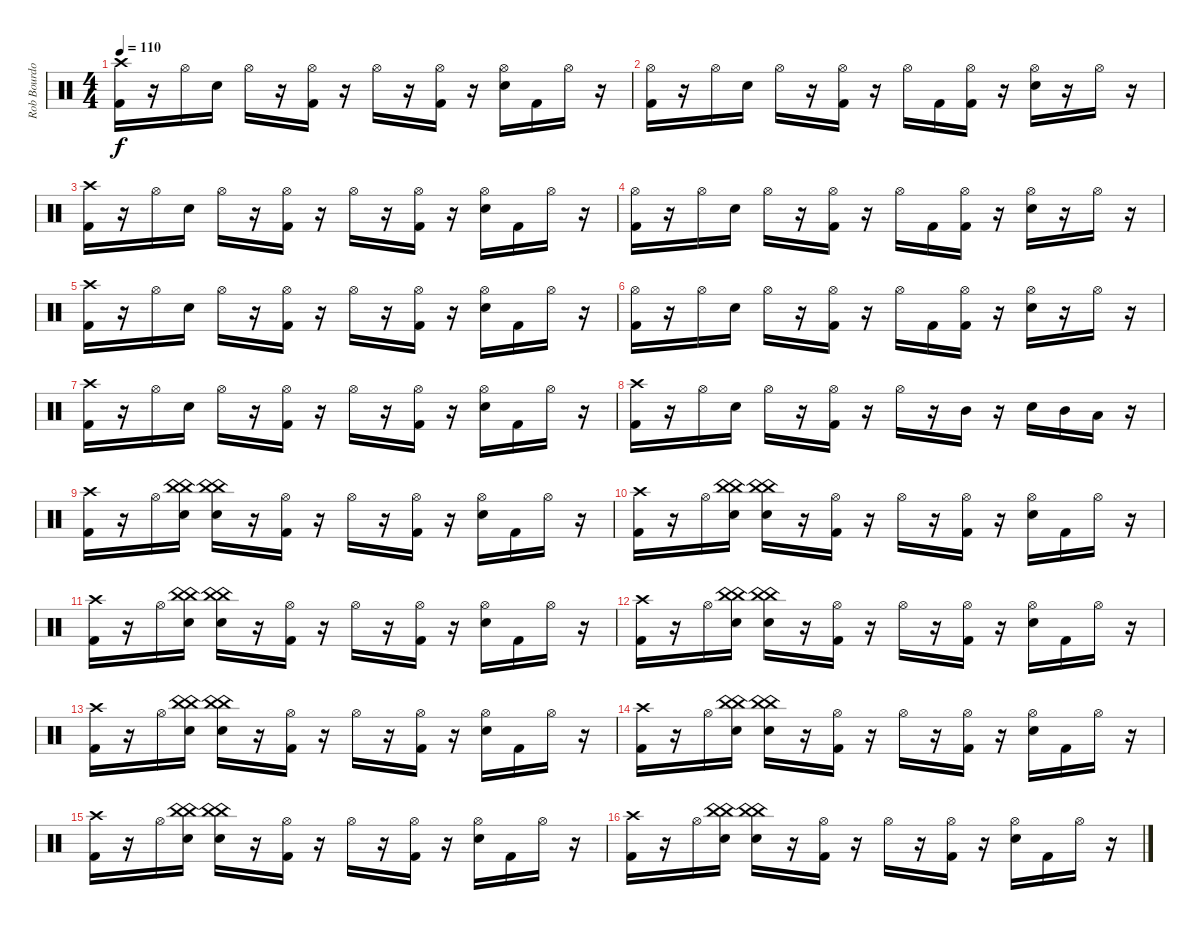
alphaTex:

\track ("Rob Bourdon (Drums)" "Rob Bourdo") {instrument percussion}
\staff {score}
\articulation defaults
\ts (4 4)
\tempo 110
\clef neutral
\ks c
("Crash high (hit)" "Kick (hit) 2").16{dy f} r.16 "Hi-Hat (open)".16 "Electric Snare (hit)".16 "Hi-Hat (open)".16 r.16 ("Hi-Hat (open)" "Kick (hit) 2").16 r.16 "Hi-Hat (open)".16 r.16 ("Hi-Hat (open)" "Kick (hit) 2").16 r.16 ("Hi-Hat (open)" "Electric Snare (hit)").16 "Kick (hit) 2".16 "Hi-Hat (open)".16 r.16 |
("Hi-Hat (open)" "Kick (hit) 2").16 r.16 "Hi-Hat (open)".16 "Electric Snare (hit)".16 "Hi-Hat (open)".16 r.16 ("Hi-Hat (open)" "Kick (hit) 2").16 r.16 "Hi-Hat (open)".16 "Kick (hit) 2".16 ("Hi-Hat (open)" "Kick (hit) 2").16 r.16 ("Hi-Hat (open)" "Electric Snare (hit)").16 r.16 "Hi-Hat (open)".16 r.16 |
("Crash high (hit)" "Kick (hit) 2").16 r.16 "Hi-Hat (open)".16 "Electric Snare (hit)".16 "Hi-Hat (open)".16 r.16 ("Hi-Hat (open)" "Kick (hit) 2").16 r.16 "Hi-Hat (open)".16 r.16 ("Hi-Hat (open)" "Kick (hit) 2").16 r.16 ("Hi-Hat (open)" "Electric Snare (hit)").16 "Kick (hit) 2".16 "Hi-Hat (open)".16 r.16 |
("Hi-Hat (open)" "Kick (hit) 2").16 r.16 "Hi-Hat (open)".16 "Electric Snare (hit)".16 "Hi-Hat (open)".16 r.16 ("Hi-Hat (open)" "Kick (hit) 2").16 r.16 "Hi-Hat (open)".16 "Kick (hit) 2".16 ("Hi-Hat (open)" "Kick (hit) 2").16 r.16 ("Hi-Hat (open)" "Electric Snare (hit)").16 r.16 "Hi-Hat (open)".16 r.16 |
("Crash high (hit)" "Kick (hit) 2").16 r.16 "Hi-Hat (open)".16 "Electric Snare (hit)".16 "Hi-Hat (open)".16 r.16 ("Hi-Hat (open)" "Kick (hit) 2").16 r.16 "Hi-Hat (open)".16 r.16 ("Hi-Hat (open)" "Kick (hit) 2").16 r.16 ("Hi-Hat (open)" "Electric Snare (hit)").16 "Kick (hit) 2".16 "Hi-Hat (open)".16 r.16 |
("Hi-Hat (open)" "Kick (hit) 2").16 r.16 "Hi-Hat (open)".16 "Electric Snare (hit)".16 "Hi-Hat (open)".16 r.16 ("Hi-Hat (open)" "Kick (hit) 2").16 r.16 "Hi-Hat (open)".16 "Kick (hit) 2".16 ("Hi-Hat (open)" "Kick (hit) 2").16 r.16 ("Hi-Hat (open)" "Electric Snare (hit)").16 r.16 "Hi-Hat (open)".16 r.16 |
("Crash high (hit)" "Kick (hit) 2").16 r.16 "Hi-Hat (open)".16 "Electric Snare (hit)".16 "Hi-Hat (open)".16 r.16 ("Hi-Hat (open)" "Kick (hit) 2").16 r.16 "Hi-Hat (open)".16 r.16 ("Hi-Hat (open)" "Kick (hit) 2").16 r.16 ("Hi-Hat (open)" "Electric Snare (hit)").16 "Kick (hit) 2".16 "Hi-Hat (open)".16 r.16 |
("Crash high (hit)" "Kick (hit) 2").16 r.16 "Hi-Hat (open)".16 "Electric Snare (hit)".16 "Hi-Hat (open)".16 r.16 ("Hi-Hat (open)" "Kick (hit) 2").16 r.16 "Hi-Hat (open)".16 r.16 "Mid Tom (hit)".16 r.16 "Electric Snare (hit)".16 "Mid Tom (hit)".16 "Low Tom (hit)".16 r.16 |
("Crash high (hit)" "Kick (hit) 2").16 r.16 "Hi-Hat (open)".16 ("China (hit)" "China (hit)" "Electric Snare (hit)").16 ("China (hit)" "China (hit)" "Electric Snare (hit)").16 r.16 ("Hi-Hat (open)" "Kick (hit) 2").16 r.16 "Hi-Hat (open)".16 r.16 ("Hi-Hat (open)" "Kick (hit) 2").16 r.16 ("Hi-Hat (open)" "Electric Snare (hit)").16 "Kick (hit) 2".16 "Hi-Hat (open)".16 r.16 |
("Crash high (hit)" "Kick (hit) 2").16 r.16 "Hi-Hat (open)".16 ("China (hit)" "China (hit)" "Electric Snare (hit)").16 ("China (hit)" "China (hit)" "Electric Snare (hit)").16 r.16 ("Hi-Hat (open)" "Kick (hit) 2").16 r.16 "Hi-Hat (open)".16 r.16 ("Hi-Hat (open)" "Kick (hit) 2").16 r.16 ("Hi-Hat (open)" "Electric Snare (hit)").16 "Kick (hit) 2".16 "Hi-Hat (open)".16 r.16 |
("Crash high (hit)" "Kick (hit) 2").16 r.16 "Hi-Hat (open)".16 ("China (hit)" "China (hit)" "Electric Snare (hit)").16 ("China (hit)" "China (hit)" "Electric Snare (hit)").16 r.16 ("Hi-Hat (open)" "Kick (hit) 2").16 r.16 "Hi-Hat (open)".16 r.16 ("Hi-Hat (open)" "Kick (hit) 2").16 r.16 ("Hi-Hat (open)" "Electric Snare (hit)").16 "Kick (hit) 2".16 "Hi-Hat (open)".16 r.16 |
("Crash high (hit)" "Kick (hit) 2").16 r.16 "Hi-Hat (open)".16 ("China (hit)" "China (hit)" "Electric Snare (hit)").16 ("China (hit)" "China (hit)" "Electric Snare (hit)").16 r.16 ("Hi-Hat (open)" "Kick (hit) 2").16 r.16 "Hi-Hat (open)".16 r.16 ("Hi-Hat (open)" "Kick (hit) 2").16 r.16 ("Hi-Hat (open)" "Electric Snare (hit)").16 "Kick (hit) 2".16 "Hi-Hat (open)".16 r.16 |
("Crash high (hit)" "Kick (hit) 2").16 r.16 "Hi-Hat (open)".16 ("China (hit)" "China (hit)" "Electric Snare (hit)").16 ("China (hit)" "China (hit)" "Electric Snare (hit)").16 r.16 ("Hi-Hat (open)" "Kick (hit) 2").16 r.16 "Hi-Hat (open)".16 r.16 ("Hi-Hat (open)" "Kick (hit) 2").16 r.16 ("Hi-Hat (open)" "Electric Snare (hit)").16 "Kick (hit) 2".16 "Hi-Hat (open)".16 r.16 |
("Crash high (hit)" "Kick (hit) 2").16 r.16 "Hi-Hat (open)".16 ("China (hit)" "China (hit)" "Electric Snare (hit)").16 ("China (hit)" "China (hit)" "Electric Snare (hit)").16 r.16 ("Hi-Hat (open)" "Kick (hit) 2").16 r.16 "Hi-Hat (open)".16 r.16 ("Hi-Hat (open)" "Kick (hit) 2").16 r.16 ("Hi-Hat (open)" "Electric Snare (hit)").16 "Kick (hit) 2".16 "Hi-Hat (open)".16 r.16 |
("Crash high (hit)" "Kick (hit) 2").16 r.16 "Hi-Hat (open)".16 ("China (hit)" "China (hit)" "Electric Snare (hit)").16 ("China (hit)" "China (hit)" "Electric Snare (hit)").16 r.16 ("Hi-Hat (open)" "Kick (hit) 2").16 r.16 "Hi-Hat (open)".16 r.16 ("Hi-Hat (open)" "Kick (hit) 2").16 r.16 ("Hi-Hat (open)" "Electric Snare (hit)").16 "Kick (hit) 2".16 "Hi-Hat (open)".16 r.16 |
("Crash high (hit)" "Kick (hit) 2").16 r.16 "Hi-Hat (open)".16 ("China (hit)" "China (hit)" "Electric Snare (hit)").16 ("China (hit)" "China (hit)" "Electric Snare (hit)").16 r.16 ("Hi-Hat (open)" "Kick (hit) 2").16 r.16 "Hi-Hat (open)".16 r.16 ("Hi-Hat (open)" "Kick (hit) 2").16 r.16 ("Hi-Hat (open)" "Electric Snare (hit)").16 "Kick (hit) 2".16 "Hi-Hat (open)".16 r.16
